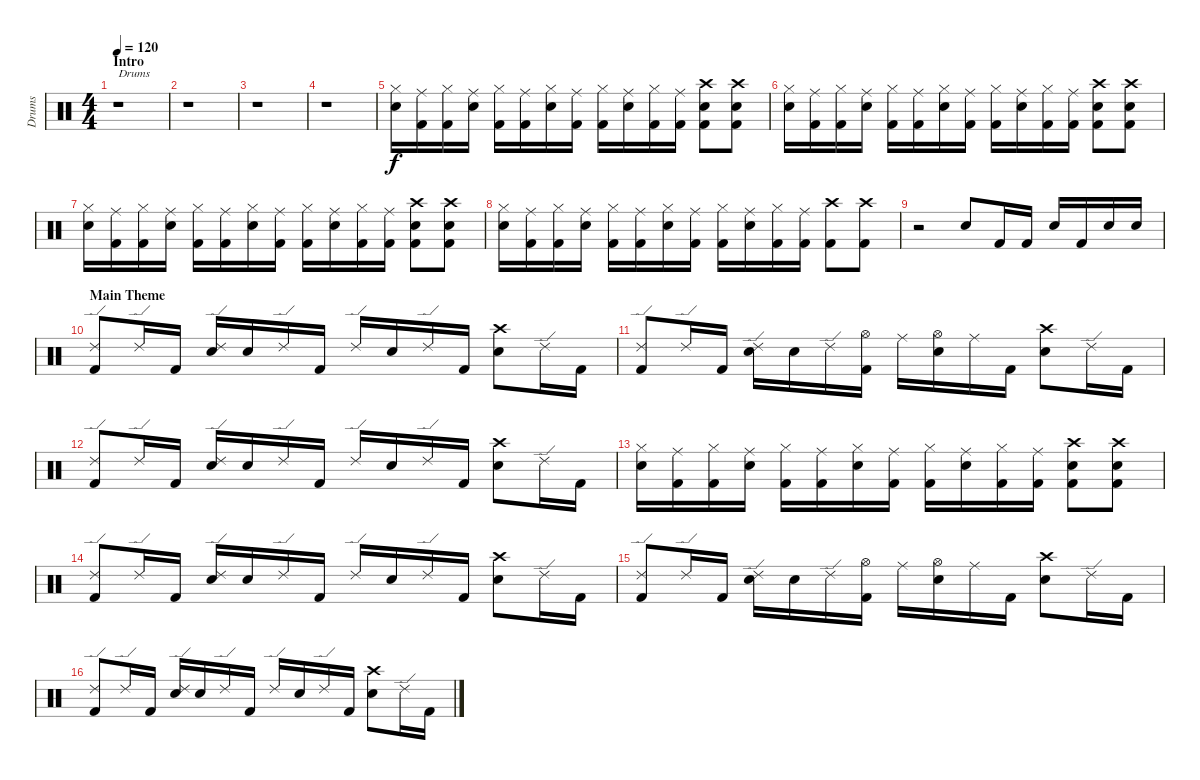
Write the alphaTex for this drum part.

\track ("Drums" "Drums") {instrument percussion}
\staff {score}
\articulation defaults
\ts (4 4)
\section ("" "Intro")
\tempo 120
\clef neutral
\ks c
r.1{txt "Drums" dy f} |
r.1 |
r.1 |
r.1 |
("Hi-Hat (closed)" "Electric Snare (hit)").16 ("Ride (middle)" "Kick (hit) 2").16 ("Hi-Hat (closed)" "Kick (hit) 2").16 ("Ride (middle)" "Electric Snare (hit)").16 ("Hi-Hat (closed)" "Kick (hit) 2").16 ("Ride (middle)" "Kick (hit) 2").16 ("Hi-Hat (closed)" "Electric Snare (hit)").16 ("Ride (middle)" "Kick (hit) 2").16 ("Hi-Hat (closed)" "Kick (hit) 2").16 ("Ride (middle)" "Electric Snare (hit)").16 ("Hi-Hat (closed)" "Kick (hit) 2").16 ("Ride (middle)" "Kick (hit) 2").16 ("Crash high (hit)" "Electric Snare (hit)" "Kick (hit) 2").8 ("Crash high (hit)" "Electric Snare (hit)" "Kick (hit) 2").8 |
("Hi-Hat (closed)" "Electric Snare (hit)").16 ("Ride (middle)" "Kick (hit) 2").16 ("Hi-Hat (closed)" "Kick (hit) 2").16 ("Ride (middle)" "Electric Snare (hit)").16 ("Hi-Hat (closed)" "Kick (hit) 2").16 ("Ride (middle)" "Kick (hit) 2").16 ("Hi-Hat (closed)" "Electric Snare (hit)").16 ("Ride (middle)" "Kick (hit) 2").16 ("Hi-Hat (closed)" "Kick (hit) 2").16 ("Ride (middle)" "Electric Snare (hit)").16 ("Hi-Hat (closed)" "Kick (hit) 2").16 ("Ride (middle)" "Kick (hit) 2").16 ("Crash high (hit)" "Electric Snare (hit)" "Kick (hit) 2").8 ("Crash high (hit)" "Electric Snare (hit)" "Kick (hit) 2").8 |
("Hi-Hat (closed)" "Electric Snare (hit)").16 ("Ride (middle)" "Kick (hit) 2").16 ("Hi-Hat (closed)" "Kick (hit) 2").16 ("Ride (middle)" "Electric Snare (hit)").16 ("Hi-Hat (closed)" "Kick (hit) 2").16 ("Ride (middle)" "Kick (hit) 2").16 ("Hi-Hat (closed)" "Electric Snare (hit)").16 ("Ride (middle)" "Kick (hit) 2").16 ("Hi-Hat (closed)" "Kick (hit) 2").16 ("Ride (middle)" "Electric Snare (hit)").16 ("Hi-Hat (closed)" "Kick (hit) 2").16 ("Ride (middle)" "Kick (hit) 2").16 ("Crash high (hit)" "Electric Snare (hit)" "Kick (hit) 2").8 ("Crash high (hit)" "Electric Snare (hit)" "Kick (hit) 2").8 |
("Hi-Hat (closed)" "Electric Snare (hit)").16 ("Ride (middle)" "Kick (hit) 2").16 ("Hi-Hat (closed)" "Kick (hit) 2").16 ("Ride (middle)" "Electric Snare (hit)").16 ("Hi-Hat (closed)" "Kick (hit) 2").16 ("Ride (middle)" "Kick (hit) 2").16 ("Hi-Hat (closed)" "Electric Snare (hit)").16 ("Ride (middle)" "Kick (hit) 2").16 ("Hi-Hat (closed)" "Kick (hit) 2").16 ("Ride (middle)" "Electric Snare (hit)").16 ("Hi-Hat (closed)" "Kick (hit) 2").16 ("Ride (middle)" "Kick (hit) 2").16 ("Crash high (hit)" "Kick (hit) 2").8 ("Crash high (hit)" "Kick (hit) 2").8 |
r.2 "Electric Snare (hit)".8 "Kick (hit) 2".16 "Kick (hit) 2".16 "Electric Snare (hit)".16 "Kick (hit) 2".16 "Electric Snare (hit)".16 "Electric Snare (hit)".16 |
\section ("" "Main Theme")
("Ride (edge) 2" "Kick (hit) 2").8 "Ride (edge) 2".16 "Kick (hit) 2".16 ("Ride (edge) 2" "Electric Snare (hit)").16 "Electric Snare (hit)".16 "Ride (edge) 2".16 "Kick (hit) 2".16 "Ride (edge) 2".16 "Electric Snare (hit)".16 "Ride (edge) 2".16 "Kick (hit) 2".16 ("Crash high (hit)" "Electric Snare (hit)").8 "Ride (edge) 2".16 "Kick (hit) 2".16 |
("Ride (edge) 2" "Kick (hit) 2").8 "Ride (edge) 2".16 "Kick (hit) 2".16 ("Ride (edge) 2" "Electric Snare (hit)").16 "Electric Snare (hit)".16 "Ride (edge) 2".16 ("Hi-Hat (open)" "Kick (hit) 2").16 "Ride (middle)".16 ("Hi-Hat (open)" "Electric Snare (hit)").16 "Ride (middle)".16 "Kick (hit) 2".16 ("Crash high (hit)" "Electric Snare (hit)").8 "Ride (edge) 2".16 "Kick (hit) 2".16 |
("Ride (edge) 2" "Kick (hit) 2").8 "Ride (edge) 2".16 "Kick (hit) 2".16 ("Ride (edge) 2" "Electric Snare (hit)").16 "Electric Snare (hit)".16 "Ride (edge) 2".16 "Kick (hit) 2".16 "Ride (edge) 2".16 "Electric Snare (hit)".16 "Ride (edge) 2".16 "Kick (hit) 2".16 ("Crash high (hit)" "Electric Snare (hit)").8 "Ride (edge) 2".16 "Kick (hit) 2".16 |
("Hi-Hat (closed)" "Electric Snare (hit)").16 ("Ride (middle)" "Kick (hit) 2").16 ("Hi-Hat (closed)" "Kick (hit) 2").16 ("Ride (middle)" "Electric Snare (hit)").16 ("Hi-Hat (closed)" "Kick (hit) 2").16 ("Ride (middle)" "Kick (hit) 2").16 ("Hi-Hat (closed)" "Electric Snare (hit)").16 ("Ride (middle)" "Kick (hit) 2").16 ("Hi-Hat (closed)" "Kick (hit) 2").16 ("Ride (middle)" "Electric Snare (hit)").16 ("Hi-Hat (closed)" "Kick (hit) 2").16 ("Ride (middle)" "Kick (hit) 2").16 ("Crash high (hit)" "Electric Snare (hit)" "Kick (hit) 2").8 ("Crash high (hit)" "Electric Snare (hit)" "Kick (hit) 2").8 |
("Ride (edge) 2" "Kick (hit) 2").8 "Ride (edge) 2".16 "Kick (hit) 2".16 ("Ride (edge) 2" "Electric Snare (hit)").16 "Electric Snare (hit)".16 "Ride (edge) 2".16 "Kick (hit) 2".16 "Ride (edge) 2".16 "Electric Snare (hit)".16 "Ride (edge) 2".16 "Kick (hit) 2".16 ("Crash high (hit)" "Electric Snare (hit)").8 "Ride (edge) 2".16 "Kick (hit) 2".16 |
("Ride (edge) 2" "Kick (hit) 2").8 "Ride (edge) 2".16 "Kick (hit) 2".16 ("Ride (edge) 2" "Electric Snare (hit)").16 "Electric Snare (hit)".16 "Ride (edge) 2".16 ("Hi-Hat (open)" "Kick (hit) 2").16 "Ride (middle)".16 ("Hi-Hat (open)" "Electric Snare (hit)").16 "Ride (middle)".16 "Kick (hit) 2".16 ("Crash high (hit)" "Electric Snare (hit)").8 "Ride (edge) 2".16 "Kick (hit) 2".16 |
("Ride (edge) 2" "Kick (hit) 2").8 "Ride (edge) 2".16 "Kick (hit) 2".16 ("Ride (edge) 2" "Electric Snare (hit)").16 "Electric Snare (hit)".16 "Ride (edge) 2".16 "Kick (hit) 2".16 "Ride (edge) 2".16 "Electric Snare (hit)".16 "Ride (edge) 2".16 "Kick (hit) 2".16 ("Crash high (hit)" "Electric Snare (hit)").8 "Ride (edge) 2".16 "Kick (hit) 2".16
